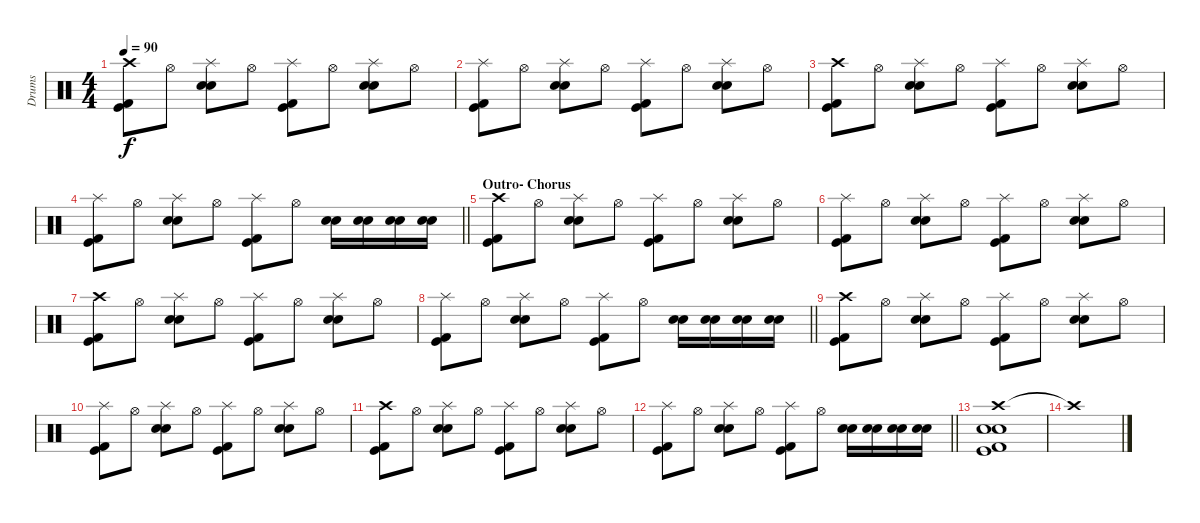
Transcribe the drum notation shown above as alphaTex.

\track ("Drums" "Drums") {instrument percussion}
\staff {score}
\articulation defaults
\ts (4 4)
\tempo 90
\clef neutral
\ks c
("Crash high (hit)" "Kick (hit) 2" "Kick (hit)").8{dy f} "Hi-Hat (open)".8 ("Splash (hit)" "Electric Snare (hit)" "Snare (hit) 2").8 "Hi-Hat (open)".8 ("Splash (hit)" "Kick (hit) 2" "Kick (hit)").8 "Hi-Hat (open)".8 ("Splash (hit)" "Electric Snare (hit)" "Snare (hit) 2").8 "Hi-Hat (open)".8 |
("Splash (hit)" "Kick (hit) 2" "Kick (hit)").8 "Hi-Hat (open)".8 ("Splash (hit)" "Electric Snare (hit)" "Snare (hit) 2").8 "Hi-Hat (open)".8 ("Splash (hit)" "Kick (hit) 2" "Kick (hit)").8 "Hi-Hat (open)".8 ("Splash (hit)" "Electric Snare (hit)" "Snare (hit) 2").8 "Hi-Hat (open)".8 |
("Crash high (hit)" "Kick (hit) 2" "Kick (hit)").8 "Hi-Hat (open)".8 ("Splash (hit)" "Electric Snare (hit)" "Snare (hit) 2").8 "Hi-Hat (open)".8 ("Splash (hit)" "Kick (hit) 2" "Kick (hit)").8 "Hi-Hat (open)".8 ("Splash (hit)" "Electric Snare (hit)" "Snare (hit) 2").8 "Hi-Hat (open)".8 |
\barLineRight lightlight
("Splash (hit)" "Kick (hit) 2" "Kick (hit)").8 "Hi-Hat (open)".8 ("Splash (hit)" "Electric Snare (hit)" "Snare (hit) 2").8 "Hi-Hat (open)".8 ("Splash (hit)" "Kick (hit) 2" "Kick (hit)").8 "Hi-Hat (open)".8 ("Electric Snare (hit)" "Snare (hit) 2").16 ("Electric Snare (hit)" "Snare (hit) 2").16 ("Electric Snare (hit)" "Snare (hit) 2").16 ("Electric Snare (hit)" "Snare (hit) 2").16 |
\section ("" "Outro- Chorus")
("Crash high (hit)" "Kick (hit) 2" "Kick (hit)").8 "Hi-Hat (open)".8 ("Splash (hit)" "Electric Snare (hit)" "Snare (hit) 2").8 "Hi-Hat (open)".8 ("Splash (hit)" "Kick (hit) 2" "Kick (hit)").8 "Hi-Hat (open)".8 ("Splash (hit)" "Electric Snare (hit)" "Snare (hit) 2").8 "Hi-Hat (open)".8 |
("Splash (hit)" "Kick (hit) 2" "Kick (hit)").8 "Hi-Hat (open)".8 ("Splash (hit)" "Electric Snare (hit)" "Snare (hit) 2").8 "Hi-Hat (open)".8 ("Splash (hit)" "Kick (hit) 2" "Kick (hit)").8 "Hi-Hat (open)".8 ("Splash (hit)" "Electric Snare (hit)" "Snare (hit) 2").8 "Hi-Hat (open)".8 |
("Crash high (hit)" "Kick (hit) 2" "Kick (hit)").8 "Hi-Hat (open)".8 ("Splash (hit)" "Electric Snare (hit)" "Snare (hit) 2").8 "Hi-Hat (open)".8 ("Splash (hit)" "Kick (hit) 2" "Kick (hit)").8 "Hi-Hat (open)".8 ("Splash (hit)" "Electric Snare (hit)" "Snare (hit) 2").8 "Hi-Hat (open)".8 |
\barLineRight lightlight
("Splash (hit)" "Kick (hit) 2" "Kick (hit)").8 "Hi-Hat (open)".8 ("Splash (hit)" "Electric Snare (hit)" "Snare (hit) 2").8 "Hi-Hat (open)".8 ("Splash (hit)" "Kick (hit) 2" "Kick (hit)").8 "Hi-Hat (open)".8 ("Electric Snare (hit)" "Snare (hit) 2").16 ("Electric Snare (hit)" "Snare (hit) 2").16 ("Electric Snare (hit)" "Snare (hit) 2").16 ("Electric Snare (hit)" "Snare (hit) 2").16 |
("Crash high (hit)" "Kick (hit) 2" "Kick (hit)").8 "Hi-Hat (open)".8 ("Splash (hit)" "Electric Snare (hit)" "Snare (hit) 2").8 "Hi-Hat (open)".8 ("Splash (hit)" "Kick (hit) 2" "Kick (hit)").8 "Hi-Hat (open)".8 ("Splash (hit)" "Electric Snare (hit)" "Snare (hit) 2").8 "Hi-Hat (open)".8 |
("Splash (hit)" "Kick (hit) 2" "Kick (hit)").8 "Hi-Hat (open)".8 ("Splash (hit)" "Electric Snare (hit)" "Snare (hit) 2").8 "Hi-Hat (open)".8 ("Splash (hit)" "Kick (hit) 2" "Kick (hit)").8 "Hi-Hat (open)".8 ("Splash (hit)" "Electric Snare (hit)" "Snare (hit) 2").8 "Hi-Hat (open)".8 |
("Crash high (hit)" "Kick (hit) 2" "Kick (hit)").8 "Hi-Hat (open)".8 ("Splash (hit)" "Electric Snare (hit)" "Snare (hit) 2").8 "Hi-Hat (open)".8 ("Splash (hit)" "Kick (hit) 2" "Kick (hit)").8 "Hi-Hat (open)".8 ("Splash (hit)" "Electric Snare (hit)" "Snare (hit) 2").8 "Hi-Hat (open)".8 |
\barLineRight lightlight
("Splash (hit)" "Kick (hit) 2" "Kick (hit)").8 "Hi-Hat (open)".8 ("Splash (hit)" "Electric Snare (hit)" "Snare (hit) 2").8 "Hi-Hat (open)".8 ("Splash (hit)" "Kick (hit) 2" "Kick (hit)").8 "Hi-Hat (open)".8 ("Electric Snare (hit)" "Snare (hit) 2").16 ("Electric Snare (hit)" "Snare (hit) 2").16 ("Electric Snare (hit)" "Snare (hit) 2").16 ("Electric Snare (hit)" "Snare (hit) 2").16 |
("Crash high (hit)" "Electric Snare (hit)" "Snare (hit) 2" "Kick (hit) 2" "Kick (hit)").1 |
"Crash high (hit)"{t}.1
